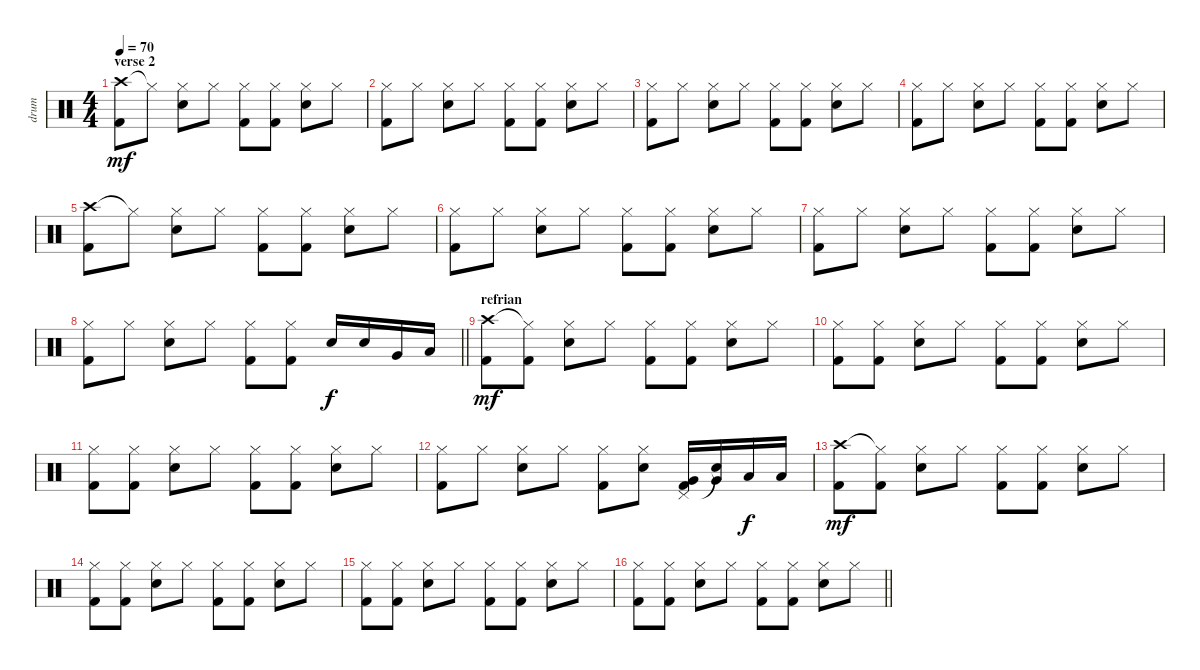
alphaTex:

\track ("drum" "drum") {instrument percussion}
\staff
\articulation defaults
\ts (4 4)
\section ("" "verse 2")
\tempo 70
\clef neutral
\ks c
("Crash high (hit)" "Kick (hit) 2").8{dy mf} "Hi-Hat (closed)"{t}.8 ("Hi-Hat (closed)" "Electric Snare (hit)").8 "Hi-Hat (closed)".8 ("Hi-Hat (closed)" "Kick (hit) 2").8 ("Hi-Hat (closed)" "Kick (hit) 2").8 ("Hi-Hat (closed)" "Electric Snare (hit)").8 "Hi-Hat (closed)".8 |
("Hi-Hat (closed)" "Kick (hit) 2").8 "Hi-Hat (closed)".8 ("Hi-Hat (closed)" "Electric Snare (hit)").8 "Hi-Hat (closed)".8 ("Hi-Hat (closed)" "Kick (hit) 2").8 ("Hi-Hat (closed)" "Kick (hit) 2").8 ("Hi-Hat (closed)" "Electric Snare (hit)").8 "Hi-Hat (closed)".8 |
("Hi-Hat (closed)" "Kick (hit) 2").8 "Hi-Hat (closed)".8 ("Hi-Hat (closed)" "Electric Snare (hit)").8 "Hi-Hat (closed)".8 ("Hi-Hat (closed)" "Kick (hit) 2").8 ("Hi-Hat (closed)" "Kick (hit) 2").8 ("Hi-Hat (closed)" "Electric Snare (hit)").8 "Hi-Hat (closed)".8 |
("Hi-Hat (closed)" "Kick (hit) 2").8 "Hi-Hat (closed)".8 ("Hi-Hat (closed)" "Electric Snare (hit)").8 "Hi-Hat (closed)".8 ("Hi-Hat (closed)" "Kick (hit) 2").8 ("Hi-Hat (closed)" "Kick (hit) 2").8 ("Hi-Hat (closed)" "Electric Snare (hit)").8 "Hi-Hat (closed)".8 |
("Crash high (hit)" "Kick (hit) 2").8 "Hi-Hat (closed)"{t}.8 ("Hi-Hat (closed)" "Electric Snare (hit)").8 "Hi-Hat (closed)".8 ("Hi-Hat (closed)" "Kick (hit) 2").8 ("Hi-Hat (closed)" "Kick (hit) 2").8 ("Hi-Hat (closed)" "Electric Snare (hit)").8 "Hi-Hat (closed)".8 |
("Hi-Hat (closed)" "Kick (hit) 2").8 "Hi-Hat (closed)".8 ("Hi-Hat (closed)" "Electric Snare (hit)").8 "Hi-Hat (closed)".8 ("Hi-Hat (closed)" "Kick (hit) 2").8 ("Hi-Hat (closed)" "Kick (hit) 2").8 ("Hi-Hat (closed)" "Electric Snare (hit)").8 "Hi-Hat (closed)".8 |
("Hi-Hat (closed)" "Kick (hit) 2").8 "Hi-Hat (closed)".8 ("Hi-Hat (closed)" "Electric Snare (hit)").8 "Hi-Hat (closed)".8 ("Hi-Hat (closed)" "Kick (hit) 2").8 ("Hi-Hat (closed)" "Kick (hit) 2").8 ("Hi-Hat (closed)" "Electric Snare (hit)").8 "Hi-Hat (closed)".8 |
\barLineRight lightlight
("Hi-Hat (closed)" "Kick (hit) 2").8 "Hi-Hat (closed)".8 ("Hi-Hat (closed)" "Electric Snare (hit)").8 "Hi-Hat (closed)".8 ("Hi-Hat (closed)" "Kick (hit) 2").8 ("Hi-Hat (closed)" "Kick (hit) 2").8 "Electric Snare (hit)".16{dy f} "Electric Snare (hit)".16 "Very Low Tom (hit)".16 "Low Floor Tom (hit)".16 |
\section ("" "refrian")
("Crash high (hit)" "Kick (hit) 2").8{dy mf} ("Hi-Hat (closed)"{t} "Kick (hit) 2").8 ("Hi-Hat (closed)" "Electric Snare (hit)").8 "Hi-Hat (closed)".8 ("Hi-Hat (closed)" "Kick (hit) 2").8 ("Hi-Hat (closed)" "Kick (hit) 2").8 ("Hi-Hat (closed)" "Electric Snare (hit)").8 "Hi-Hat (closed)".8 |
("Hi-Hat (closed)" "Kick (hit) 2").8 ("Hi-Hat (closed)" "Kick (hit) 2").8 ("Hi-Hat (closed)" "Electric Snare (hit)").8 "Hi-Hat (closed)".8 ("Hi-Hat (closed)" "Kick (hit) 2").8 ("Hi-Hat (closed)" "Kick (hit) 2").8 ("Hi-Hat (closed)" "Electric Snare (hit)").8 "Hi-Hat (closed)".8 |
("Hi-Hat (closed)" "Kick (hit) 2").8 ("Hi-Hat (closed)" "Kick (hit) 2").8 ("Hi-Hat (closed)" "Electric Snare (hit)").8 "Hi-Hat (closed)".8 ("Hi-Hat (closed)" "Kick (hit) 2").8 ("Hi-Hat (closed)" "Kick (hit) 2").8 ("Hi-Hat (closed)" "Electric Snare (hit)").8 "Hi-Hat (closed)".8 |
("Hi-Hat (closed)" "Kick (hit) 2").8 "Hi-Hat (closed)".8 ("Hi-Hat (closed)" "Electric Snare (hit)").8 "Hi-Hat (closed)".8 ("Hi-Hat (closed)" "Kick (hit) 2").8 ("Hi-Hat (closed)" "Electric Snare (hit)").8 ("Pedal Hi-Hat (hit)" "Very Low Tom (hit)" "Kick (hit) 2").16 ("Snare (hit)"{t} "Very Low Tom (hit)").16 "Low Floor Tom (hit)".16{dy f} "Low Floor Tom (hit)".16 |
("Crash high (hit)" "Kick (hit) 2").8{dy mf} ("Hi-Hat (closed)"{t} "Kick (hit) 2").8 ("Hi-Hat (closed)" "Electric Snare (hit)").8 "Hi-Hat (closed)".8 ("Hi-Hat (closed)" "Kick (hit) 2").8 ("Hi-Hat (closed)" "Kick (hit) 2").8 ("Hi-Hat (closed)" "Electric Snare (hit)").8 "Hi-Hat (closed)".8 |
("Hi-Hat (closed)" "Kick (hit) 2").8 ("Hi-Hat (closed)" "Kick (hit) 2").8 ("Hi-Hat (closed)" "Electric Snare (hit)").8 "Hi-Hat (closed)".8 ("Hi-Hat (closed)" "Kick (hit) 2").8 ("Hi-Hat (closed)" "Kick (hit) 2").8 ("Hi-Hat (closed)" "Electric Snare (hit)").8 "Hi-Hat (closed)".8 |
("Hi-Hat (closed)" "Kick (hit) 2").8 ("Hi-Hat (closed)" "Kick (hit) 2").8 ("Hi-Hat (closed)" "Electric Snare (hit)").8 "Hi-Hat (closed)".8 ("Hi-Hat (closed)" "Kick (hit) 2").8 ("Hi-Hat (closed)" "Kick (hit) 2").8 ("Hi-Hat (closed)" "Electric Snare (hit)").8 "Hi-Hat (closed)".8 |
\barLineRight lightlight
("Hi-Hat (closed)" "Kick (hit) 2").8 ("Hi-Hat (closed)" "Kick (hit) 2").8 ("Hi-Hat (closed)" "Electric Snare (hit)").8 "Hi-Hat (closed)".8 ("Hi-Hat (closed)" "Kick (hit) 2").8 ("Hi-Hat (closed)" "Kick (hit) 2").8 ("Hi-Hat (closed)" "Electric Snare (hit)").8 "Hi-Hat (closed)".8
